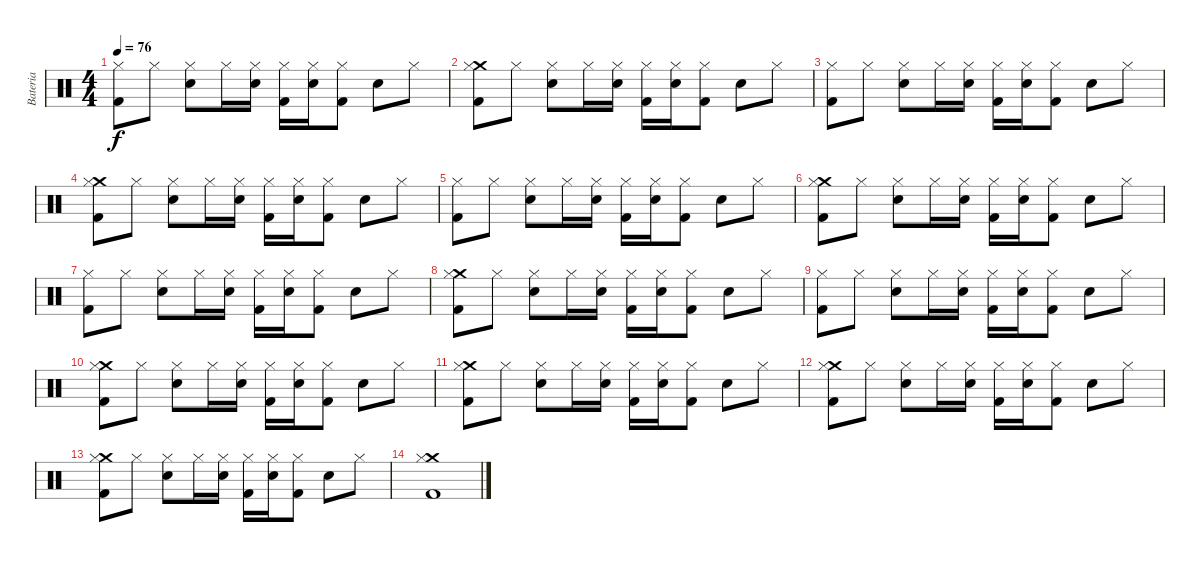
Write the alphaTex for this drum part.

\track ("Bateria" "Bateria") {instrument percussion}
\staff {score}
\articulation defaults
\ts (4 4)
\tempo 76
\clef neutral
\ks c
("Hi-Hat (closed)" "Kick (hit) 2").8{dy f} "Hi-Hat (closed)".8 ("Snare (hit) 2" "Hi-Hat (closed)").8 "Hi-Hat (closed)".16 ("Snare (hit) 2" "Hi-Hat (closed)").16 ("Hi-Hat (closed)" "Kick (hit) 2").16 ("Snare (hit) 2" "Hi-Hat (closed)").16 ("Hi-Hat (closed)" "Kick (hit) 2").8 "Snare (hit) 2".8 "Hi-Hat (closed)".8 |
("Crash medium (hit)" "Hi-Hat (closed)" "Kick (hit) 2").8 "Hi-Hat (closed)".8 ("Snare (hit) 2" "Hi-Hat (closed)").8 "Hi-Hat (closed)".16 ("Snare (hit) 2" "Hi-Hat (closed)").16 ("Hi-Hat (closed)" "Kick (hit) 2").16 ("Snare (hit) 2" "Hi-Hat (closed)").16 ("Hi-Hat (closed)" "Kick (hit) 2").8 "Snare (hit) 2".8 "Hi-Hat (closed)".8 |
("Hi-Hat (closed)" "Kick (hit) 2").8 "Hi-Hat (closed)".8 ("Snare (hit) 2" "Hi-Hat (closed)").8 "Hi-Hat (closed)".16 ("Snare (hit) 2" "Hi-Hat (closed)").16 ("Hi-Hat (closed)" "Kick (hit) 2").16 ("Snare (hit) 2" "Hi-Hat (closed)").16 ("Hi-Hat (closed)" "Kick (hit) 2").8 "Snare (hit) 2".8 "Hi-Hat (closed)".8 |
("Crash medium (hit)" "Hi-Hat (closed)" "Kick (hit) 2").8 "Hi-Hat (closed)".8 ("Snare (hit) 2" "Hi-Hat (closed)").8 "Hi-Hat (closed)".16 ("Snare (hit) 2" "Hi-Hat (closed)").16 ("Hi-Hat (closed)" "Kick (hit) 2").16 ("Snare (hit) 2" "Hi-Hat (closed)").16 ("Hi-Hat (closed)" "Kick (hit) 2").8 "Snare (hit) 2".8 "Hi-Hat (closed)".8 |
("Hi-Hat (closed)" "Kick (hit) 2").8 "Hi-Hat (closed)".8 ("Snare (hit) 2" "Hi-Hat (closed)").8 "Hi-Hat (closed)".16 ("Snare (hit) 2" "Hi-Hat (closed)").16 ("Hi-Hat (closed)" "Kick (hit) 2").16 ("Snare (hit) 2" "Hi-Hat (closed)").16 ("Hi-Hat (closed)" "Kick (hit) 2").8 "Snare (hit) 2".8 "Hi-Hat (closed)".8 |
("Crash medium (hit)" "Hi-Hat (closed)" "Kick (hit) 2").8 "Hi-Hat (closed)".8 ("Snare (hit) 2" "Hi-Hat (closed)").8 "Hi-Hat (closed)".16 ("Snare (hit) 2" "Hi-Hat (closed)").16 ("Hi-Hat (closed)" "Kick (hit) 2").16 ("Snare (hit) 2" "Hi-Hat (closed)").16 ("Hi-Hat (closed)" "Kick (hit) 2").8 "Snare (hit) 2".8 "Hi-Hat (closed)".8 |
("Hi-Hat (closed)" "Kick (hit) 2").8 "Hi-Hat (closed)".8 ("Snare (hit) 2" "Hi-Hat (closed)").8 "Hi-Hat (closed)".16 ("Snare (hit) 2" "Hi-Hat (closed)").16 ("Hi-Hat (closed)" "Kick (hit) 2").16 ("Snare (hit) 2" "Hi-Hat (closed)").16 ("Hi-Hat (closed)" "Kick (hit) 2").8 "Snare (hit) 2".8 "Hi-Hat (closed)".8 |
("Crash medium (hit)" "Hi-Hat (closed)" "Kick (hit) 2").8 "Hi-Hat (closed)".8 ("Snare (hit) 2" "Hi-Hat (closed)").8 "Hi-Hat (closed)".16 ("Snare (hit) 2" "Hi-Hat (closed)").16 ("Hi-Hat (closed)" "Kick (hit) 2").16 ("Snare (hit) 2" "Hi-Hat (closed)").16 ("Hi-Hat (closed)" "Kick (hit) 2").8 "Snare (hit) 2".8 "Hi-Hat (closed)".8 |
("Hi-Hat (closed)" "Kick (hit) 2").8 "Hi-Hat (closed)".8 ("Snare (hit) 2" "Hi-Hat (closed)").8 "Hi-Hat (closed)".16 ("Snare (hit) 2" "Hi-Hat (closed)").16 ("Hi-Hat (closed)" "Kick (hit) 2").16 ("Snare (hit) 2" "Hi-Hat (closed)").16 ("Hi-Hat (closed)" "Kick (hit) 2").8 "Snare (hit) 2".8 "Hi-Hat (closed)".8 |
("Crash medium (hit)" "Hi-Hat (closed)" "Kick (hit) 2").8 "Hi-Hat (closed)".8 ("Snare (hit) 2" "Hi-Hat (closed)").8 "Hi-Hat (closed)".16 ("Snare (hit) 2" "Hi-Hat (closed)").16 ("Hi-Hat (closed)" "Kick (hit) 2").16 ("Snare (hit) 2" "Hi-Hat (closed)").16 ("Hi-Hat (closed)" "Kick (hit) 2").8 "Snare (hit) 2".8 "Hi-Hat (closed)".8 |
("Crash medium (hit)" "Hi-Hat (closed)" "Kick (hit) 2").8 "Hi-Hat (closed)".8 ("Snare (hit) 2" "Hi-Hat (closed)").8 "Hi-Hat (closed)".16 ("Snare (hit) 2" "Hi-Hat (closed)").16 ("Hi-Hat (closed)" "Kick (hit) 2").16 ("Snare (hit) 2" "Hi-Hat (closed)").16 ("Hi-Hat (closed)" "Kick (hit) 2").8 "Snare (hit) 2".8 "Hi-Hat (closed)".8 |
("Crash medium (hit)" "Hi-Hat (closed)" "Kick (hit) 2").8 "Hi-Hat (closed)".8 ("Snare (hit) 2" "Hi-Hat (closed)").8 "Hi-Hat (closed)".16 ("Snare (hit) 2" "Hi-Hat (closed)").16 ("Hi-Hat (closed)" "Kick (hit) 2").16 ("Snare (hit) 2" "Hi-Hat (closed)").16 ("Hi-Hat (closed)" "Kick (hit) 2").8 "Snare (hit) 2".8 "Hi-Hat (closed)".8 |
("Crash medium (hit)" "Hi-Hat (closed)" "Kick (hit) 2").8 "Hi-Hat (closed)".8 ("Snare (hit) 2" "Hi-Hat (closed)").8 "Hi-Hat (closed)".16 ("Snare (hit) 2" "Hi-Hat (closed)").16 ("Hi-Hat (closed)" "Kick (hit) 2").16 ("Snare (hit) 2" "Hi-Hat (closed)").16 ("Hi-Hat (closed)" "Kick (hit) 2").8 "Snare (hit) 2".8 "Hi-Hat (closed)".8 |
("Crash medium (hit)" "Hi-Hat (closed)" "Kick (hit) 2").1
